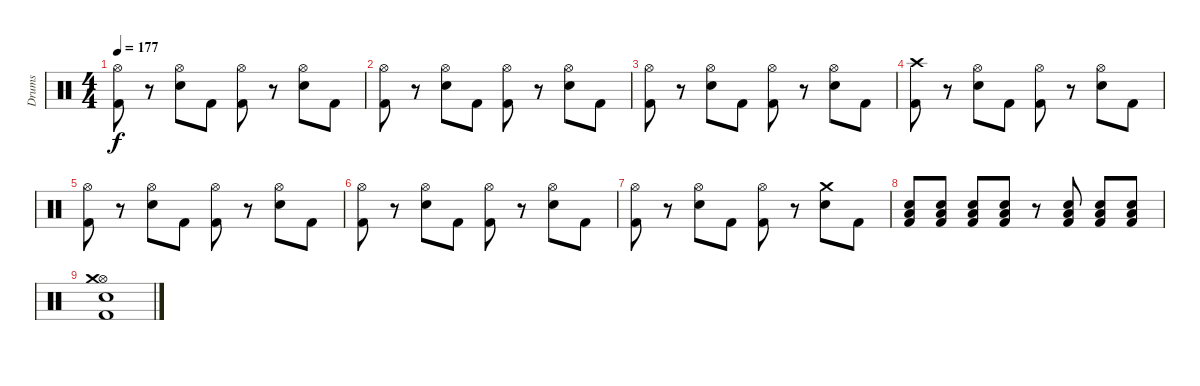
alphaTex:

\track ("Drums" "Drums") {solo instrument percussion}
\staff {score}
\articulation defaults
\ts (4 4)
\tempo 177
\clef neutral
\ks c
("Hi-Hat (open)" "Kick (hit) 2").8{dy f} r.8 ("Hi-Hat (open)" "Snare (hit) 2").8 "Kick (hit) 2".8 ("Hi-Hat (open)" "Kick (hit) 2").8 r.8 ("Hi-Hat (open)" "Snare (hit) 2").8 "Kick (hit) 2".8 |
("Hi-Hat (open)" "Kick (hit) 2").8 r.8 ("Hi-Hat (open)" "Snare (hit) 2").8 "Kick (hit) 2".8 ("Hi-Hat (open)" "Kick (hit) 2").8 r.8 ("Hi-Hat (open)" "Snare (hit) 2").8 "Kick (hit) 2".8 |
("Hi-Hat (open)" "Kick (hit) 2").8 r.8 ("Hi-Hat (open)" "Snare (hit) 2").8 "Kick (hit) 2".8 ("Hi-Hat (open)" "Kick (hit) 2").8 r.8 ("Hi-Hat (open)" "Snare (hit) 2").8 "Kick (hit) 2".8 |
("Crash high (hit)" "Kick (hit) 2").8 r.8 ("Hi-Hat (open)" "Snare (hit) 2").8 "Kick (hit) 2".8 ("Hi-Hat (open)" "Kick (hit) 2").8 r.8 ("Hi-Hat (open)" "Snare (hit) 2").8 "Kick (hit) 2".8 |
("Hi-Hat (open)" "Kick (hit) 2").8 r.8 ("Hi-Hat (open)" "Snare (hit) 2").8 "Kick (hit) 2".8 ("Hi-Hat (open)" "Kick (hit) 2").8 r.8 ("Hi-Hat (open)" "Snare (hit) 2").8 "Kick (hit) 2".8 |
("Hi-Hat (open)" "Kick (hit) 2").8 r.8 ("Hi-Hat (open)" "Snare (hit) 2").8 "Kick (hit) 2".8 ("Hi-Hat (open)" "Kick (hit) 2").8 r.8 ("Hi-Hat (open)" "Snare (hit) 2").8 "Kick (hit) 2".8 |
("Hi-Hat (open)" "Kick (hit) 2").8 r.8 ("Hi-Hat (open)" "Snare (hit) 2").8 "Kick (hit) 2".8 ("Hi-Hat (open)" "Kick (hit) 2").8 r.8 ("Crash medium (hit)" "Snare (hit) 2").8 "Kick (hit) 2".8 |
("Low Floor Tom (hit)" "Snare (hit) 2" "Kick (hit) 2").8 ("Low Floor Tom (hit)" "Snare (hit) 2" "Kick (hit) 2").8 ("Low Floor Tom (hit)" "Snare (hit) 2" "Kick (hit) 2").8 ("Low Floor Tom (hit)" "Snare (hit) 2" "Kick (hit) 2").8 r.8 ("Low Floor Tom (hit)" "Snare (hit) 2" "Kick (hit) 2").8 ("Low Floor Tom (hit)" "Snare (hit) 2" "Kick (hit) 2").8 ("Low Floor Tom (hit)" "Snare (hit) 2" "Kick (hit) 2").8 |
("Hi-Hat (open)" "Crash medium (hit)" "Snare (hit) 2" "Kick (hit) 2").1
